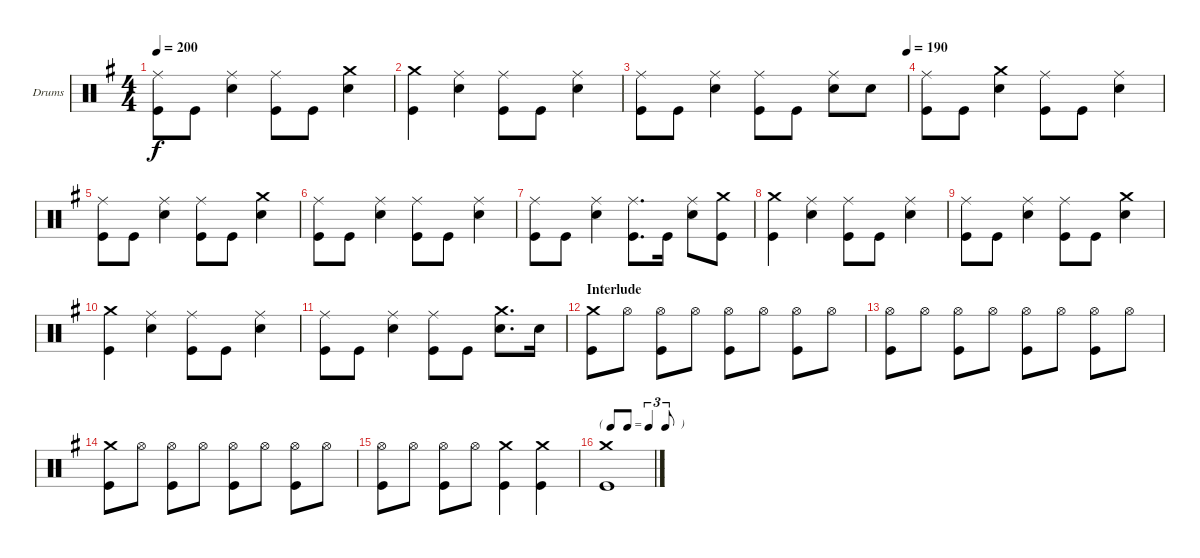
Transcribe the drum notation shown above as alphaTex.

\bracketExtendMode groupsimilarinstruments
\firstSystemTrackNameOrientation horizontal
\otherSystemsTrackNameOrientation horizontal
\track ("Drums" "Drums") {instrument percussion}
\staff {score}
\articulation defaults
\ts (4 4)
\tempo 200
\clef neutral
\ks g
("Ride (middle)" "Kick (hit)").8{dy f} "Kick (hit)".8 ("Ride (middle)" "Snare (hit) 2").4 ("Ride (middle)" "Kick (hit)").8 "Kick (hit)".8 ("Crash medium (hit)" "Snare (hit) 2").4 |
("Crash medium (hit)" "Kick (hit)").4 ("Ride (middle)" "Snare (hit) 2").4 ("Ride (middle)" "Kick (hit)").8 "Kick (hit)".8 ("Ride (middle)" "Snare (hit) 2").4 |
\tempo (190 1)
("Ride (middle)" "Kick (hit)").8 "Kick (hit)".8 ("Ride (middle)" "Snare (hit) 2").4 ("Ride (middle)" "Kick (hit)").8 "Kick (hit)".8 ("Ride (middle)" "Snare (hit) 2").8 "Snare (hit) 2".8 |
("Ride (middle)" "Kick (hit)").8 "Kick (hit)".8 ("Snare (hit) 2" "Crash medium (hit)").4 ("Ride (middle)" "Kick (hit)").8 "Kick (hit)".8 ("Ride (middle)" "Snare (hit) 2").4 |
("Ride (middle)" "Kick (hit)").8 "Kick (hit)".8 ("Ride (middle)" "Snare (hit) 2").4 ("Ride (middle)" "Kick (hit)").8 "Kick (hit)".8 ("Crash medium (hit)" "Snare (hit) 2").4 |
("Ride (middle)" "Kick (hit)").8 "Kick (hit)".8 ("Ride (middle)" "Snare (hit) 2").4 ("Ride (middle)" "Kick (hit)").8 "Kick (hit)".8 ("Ride (middle)" "Snare (hit) 2").4 |
("Ride (middle)" "Kick (hit)").8 "Kick (hit)".8 ("Ride (middle)" "Snare (hit) 2").4 ("Ride (middle)" "Kick (hit)").8{d} "Kick (hit)".16 ("Snare (hit) 2" "Ride (middle)").8 ("Kick (hit)" "Crash medium (hit)").8 |
("Crash medium (hit)" "Kick (hit)").4 ("Ride (middle)" "Snare (hit) 2").4 ("Ride (middle)" "Kick (hit)").8 "Kick (hit)".8 ("Ride (middle)" "Snare (hit) 2").4 |
("Ride (middle)" "Kick (hit)").8 "Kick (hit)".8 ("Ride (middle)" "Snare (hit) 2").4 ("Ride (middle)" "Kick (hit)").8 "Kick (hit)".8 ("Crash medium (hit)" "Snare (hit) 2").4 |
("Crash medium (hit)" "Kick (hit)").4 ("Ride (middle)" "Snare (hit) 2").4 ("Ride (middle)" "Kick (hit)").8 "Kick (hit)".8 ("Ride (middle)" "Snare (hit) 2").4 |
("Ride (middle)" "Kick (hit)").8 "Kick (hit)".8 ("Ride (middle)" "Snare (hit) 2").4 ("Ride (middle)" "Kick (hit)").8 "Kick (hit)".8 ("Snare (hit) 2" "Crash medium (hit)").8{d} "Snare (hit) 2".16 |
\section ("" "Interlude")
("Crash medium (hit)" "Kick (hit)").8 "Hi-Hat (open)".8 ("Hi-Hat (open)" "Kick (hit)").8 "Hi-Hat (open)".8 ("Hi-Hat (open)" "Kick (hit)").8 "Hi-Hat (open)".8 ("Hi-Hat (open)" "Kick (hit)").8 "Hi-Hat (open)".8 |
("Hi-Hat (open)" "Kick (hit)").8 "Hi-Hat (open)".8 ("Hi-Hat (open)" "Kick (hit)").8 "Hi-Hat (open)".8 ("Hi-Hat (open)" "Kick (hit)").8 "Hi-Hat (open)".8 ("Hi-Hat (open)" "Kick (hit)").8 "Hi-Hat (open)".8 |
("Crash medium (hit)" "Kick (hit)").8 "Hi-Hat (open)".8 ("Hi-Hat (open)" "Kick (hit)").8 "Hi-Hat (open)".8 ("Hi-Hat (open)" "Kick (hit)").8 "Hi-Hat (open)".8 ("Hi-Hat (open)" "Kick (hit)").8 "Hi-Hat (open)".8 |
("Hi-Hat (open)" "Kick (hit)").8 "Hi-Hat (open)".8 ("Hi-Hat (open)" "Kick (hit)").8 "Hi-Hat (open)".8 ("Crash medium (hit)" "Kick (hit)").4 ("Crash medium (hit)" "Kick (hit)").4 |
\tf triplet8th
("Crash medium (hit)" "Kick (hit)").1
